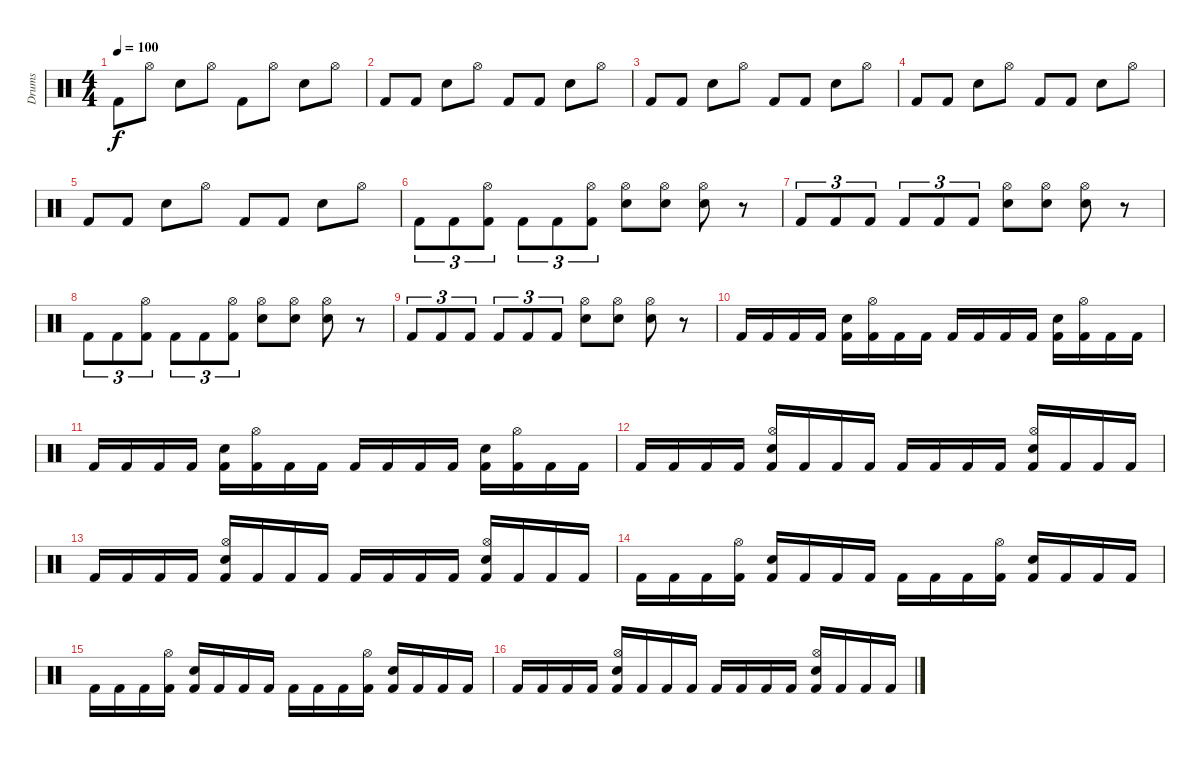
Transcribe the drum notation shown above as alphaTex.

\track ("Drums" "Drums") {instrument percussion}
\staff {score}
\articulation defaults
\ts (4 4)
\tempo 100
\clef neutral
\ks c "Kick (hit) 2".8{dy f} "Hi-Hat (open)".8 "Snare (hit) 2".8 "Hi-Hat (open)".8 "Kick (hit) 2".8 "Hi-Hat (open)".8 "Snare (hit) 2".8 "Hi-Hat (open)".8
|
"Kick (hit) 2".8 "Kick (hit) 2".8 "Snare (hit) 2".8 "Hi-Hat (open)".8 "Kick (hit) 2".8 "Kick (hit) 2".8 "Snare (hit) 2".8 "Hi-Hat (open)".8 |
"Kick (hit) 2".8 "Kick (hit) 2".8 "Snare (hit) 2".8 "Hi-Hat (open)".8 "Kick (hit) 2".8 "Kick (hit) 2".8 "Snare (hit) 2".8 "Hi-Hat (open)".8 |
"Kick (hit) 2".8 "Kick (hit) 2".8 "Snare (hit) 2".8 "Hi-Hat (open)".8 "Kick (hit) 2".8 "Kick (hit) 2".8 "Snare (hit) 2".8 "Hi-Hat (open)".8 |
"Kick (hit) 2".8 "Kick (hit) 2".8 "Snare (hit) 2".8 "Hi-Hat (open)".8 "Kick (hit) 2".8 "Kick (hit) 2".8 "Snare (hit) 2".8 "Hi-Hat (open)".8 |
"Kick (hit) 2".8{tu (3 2)} "Kick (hit) 2".8{tu (3 2)} ("Kick (hit) 2" "Hi-Hat (open)").8{tu (3 2)} "Kick (hit) 2".8{tu (3 2)} "Kick (hit) 2".8{tu (3 2)} ("Kick (hit) 2" "Hi-Hat (open)").8{tu (3 2)} ("Snare (hit) 2" "Hi-Hat (open)").8 ("Snare (hit) 2" "Hi-Hat (open)").8 ("Snare (hit) 2" "Hi-Hat (open)").8 r.8 |
"Kick (hit) 2".8{tu (3 2)} "Kick (hit) 2".8{tu (3 2)} "Kick (hit) 2".8{tu (3 2)} "Kick (hit) 2".8{tu (3 2)} "Kick (hit) 2".8{tu (3 2)} "Kick (hit) 2".8{tu (3 2)} ("Snare (hit) 2" "Hi-Hat (open)").8 ("Snare (hit) 2" "Hi-Hat (open)").8 ("Snare (hit) 2" "Hi-Hat (open)").8 r.8 |
"Kick (hit) 2".8{tu (3 2)} "Kick (hit) 2".8{tu (3 2)} ("Kick (hit) 2" "Hi-Hat (open)").8{tu (3 2)} "Kick (hit) 2".8{tu (3 2)} "Kick (hit) 2".8{tu (3 2)} ("Kick (hit) 2" "Hi-Hat (open)").8{tu (3 2)} ("Snare (hit) 2" "Hi-Hat (open)").8 ("Snare (hit) 2" "Hi-Hat (open)").8 ("Snare (hit) 2" "Hi-Hat (open)").8 r.8 |
"Kick (hit) 2".8{tu (3 2)} "Kick (hit) 2".8{tu (3 2)} "Kick (hit) 2".8{tu (3 2)} "Kick (hit) 2".8{tu (3 2)} "Kick (hit) 2".8{tu (3 2)} "Kick (hit) 2".8{tu (3 2)} ("Snare (hit) 2" "Hi-Hat (open)").8 ("Snare (hit) 2" "Hi-Hat (open)").8 ("Snare (hit) 2" "Hi-Hat (open)").8 r.8 |
"Kick (hit) 2".16 "Kick (hit) 2".16 "Kick (hit) 2".16 "Kick (hit) 2".16 ("Kick (hit) 2" "Snare (hit) 2").16 ("Kick (hit) 2" "Hi-Hat (open)").16 "Kick (hit) 2".16 "Kick (hit) 2".16 "Kick (hit) 2".16 "Kick (hit) 2".16 "Kick (hit) 2".16 "Kick (hit) 2".16 ("Kick (hit) 2" "Snare (hit) 2").16 ("Kick (hit) 2" "Hi-Hat (open)").16 "Kick (hit) 2".16 "Kick (hit) 2".16 |
"Kick (hit) 2".16 "Kick (hit) 2".16 "Kick (hit) 2".16 "Kick (hit) 2".16 ("Kick (hit) 2" "Snare (hit) 2").16 ("Kick (hit) 2" "Hi-Hat (open)").16 "Kick (hit) 2".16 "Kick (hit) 2".16 "Kick (hit) 2".16 "Kick (hit) 2".16 "Kick (hit) 2".16 "Kick (hit) 2".16 ("Kick (hit) 2" "Snare (hit) 2").16 ("Kick (hit) 2" "Hi-Hat (open)").16 "Kick (hit) 2".16 "Kick (hit) 2".16 |
"Kick (hit) 2".16 "Kick (hit) 2".16 "Kick (hit) 2".16 "Kick (hit) 2".16 ("Kick (hit) 2" "Snare (hit) 2" "Hi-Hat (open)").16 "Kick (hit) 2".16 "Kick (hit) 2".16 "Kick (hit) 2".16 "Kick (hit) 2".16 "Kick (hit) 2".16 "Kick (hit) 2".16 "Kick (hit) 2".16 ("Kick (hit) 2" "Snare (hit) 2" "Hi-Hat (open)").16 "Kick (hit) 2".16 "Kick (hit) 2".16 "Kick (hit) 2".16 |
"Kick (hit) 2".16 "Kick (hit) 2".16 "Kick (hit) 2".16 "Kick (hit) 2".16 ("Kick (hit) 2" "Snare (hit) 2" "Hi-Hat (open)").16 "Kick (hit) 2".16 "Kick (hit) 2".16 "Kick (hit) 2".16 "Kick (hit) 2".16 "Kick (hit) 2".16 "Kick (hit) 2".16 "Kick (hit) 2".16 ("Kick (hit) 2" "Snare (hit) 2" "Hi-Hat (open)").16 "Kick (hit) 2".16 "Kick (hit) 2".16 "Kick (hit) 2".16 |
"Kick (hit) 2".16 "Kick (hit) 2".16 "Kick (hit) 2".16 ("Kick (hit) 2" "Hi-Hat (open)").16 ("Kick (hit) 2" "Snare (hit) 2").16 "Kick (hit) 2".16 "Kick (hit) 2".16 "Kick (hit) 2".16 "Kick (hit) 2".16 "Kick (hit) 2".16 "Kick (hit) 2".16 ("Kick (hit) 2" "Hi-Hat (open)").16 ("Kick (hit) 2" "Snare (hit) 2").16 "Kick (hit) 2".16 "Kick (hit) 2".16 "Kick (hit) 2".16 |
"Kick (hit) 2".16 "Kick (hit) 2".16 "Kick (hit) 2".16 ("Kick (hit) 2" "Hi-Hat (open)").16 ("Kick (hit) 2" "Snare (hit) 2").16 "Kick (hit) 2".16 "Kick (hit) 2".16 "Kick (hit) 2".16 "Kick (hit) 2".16 "Kick (hit) 2".16 "Kick (hit) 2".16 ("Kick (hit) 2" "Hi-Hat (open)").16 ("Kick (hit) 2" "Snare (hit) 2").16 "Kick (hit) 2".16 "Kick (hit) 2".16 "Kick (hit) 2".16 |
"Kick (hit) 2".16 "Kick (hit) 2".16 "Kick (hit) 2".16 "Kick (hit) 2".16 ("Kick (hit) 2" "Snare (hit) 2" "Hi-Hat (open)").16 "Kick (hit) 2".16 "Kick (hit) 2".16 "Kick (hit) 2".16 "Kick (hit) 2".16 "Kick (hit) 2".16 "Kick (hit) 2".16 "Kick (hit) 2".16 ("Kick (hit) 2" "Snare (hit) 2" "Hi-Hat (open)").16 "Kick (hit) 2".16 "Kick (hit) 2".16 "Kick (hit) 2".16
